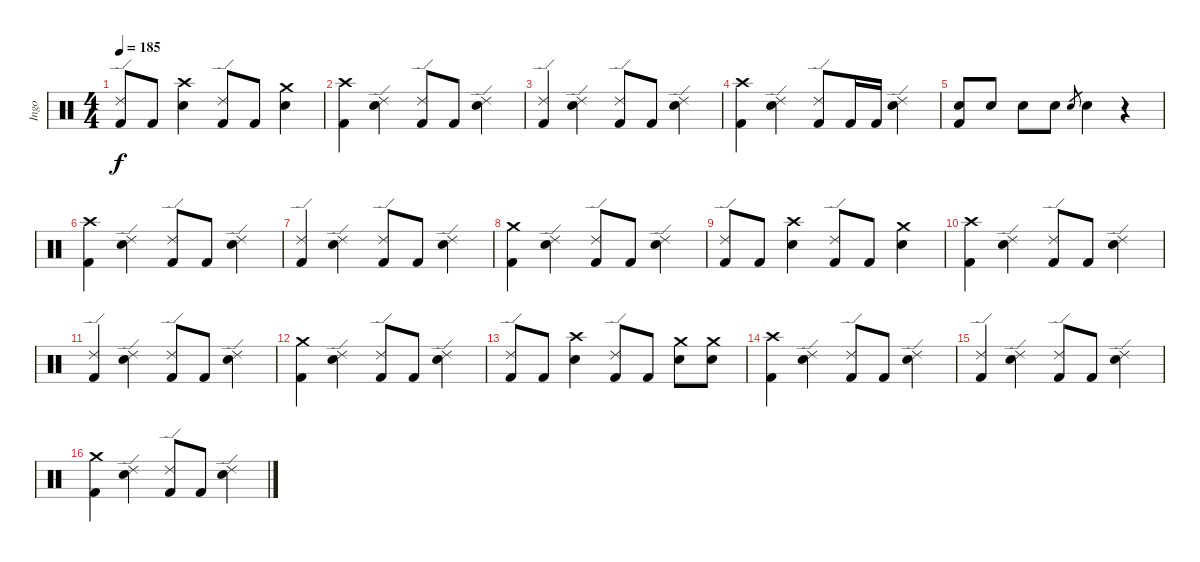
\track ("Ingo" "Ingo") {instrument percussion}
\staff {score}
\articulation defaults
\ts (4 4)
\tempo 185
\clef neutral
\ks c
("Ride (edge) 2" "Kick (hit) 2").8{dy f} "Kick (hit) 2".8 ("Crash high (hit)" "Electric Snare (hit)").4 ("Ride (edge) 2" "Kick (hit) 2").8 "Kick (hit) 2".8 ("Crash medium (hit)" "Electric Snare (hit)").4 |
("Crash high (hit)" "Kick (hit) 2").4 ("Ride (edge) 2" "Electric Snare (hit)").4 ("Ride (edge) 2" "Kick (hit) 2").8 "Kick (hit) 2".8 ("Ride (edge) 2" "Electric Snare (hit)").4 |
("Ride (edge) 2" "Kick (hit) 2").4 ("Ride (edge) 2" "Electric Snare (hit)").4 ("Ride (edge) 2" "Kick (hit) 2").8 "Kick (hit) 2".8 ("Ride (edge) 2" "Electric Snare (hit)").4 |
("Crash high (hit)" "Kick (hit) 2").4 ("Ride (edge) 2" "Electric Snare (hit)").4 ("Ride (edge) 2" "Kick (hit) 2").8 "Kick (hit) 2".16 "Kick (hit) 2".16 ("Ride (edge) 2" "Electric Snare (hit)").4 |
("Electric Snare (hit)" "Kick (hit) 2").8 "Electric Snare (hit)".8 "Electric Snare (hit)".8 "Electric Snare (hit)".8 "Electric Snare (hit)".8{gr} "Electric Snare (hit)".4 r.4 |
("Crash high (hit)" "Kick (hit) 2").4 ("Ride (edge) 2" "Electric Snare (hit)").4 ("Ride (edge) 2" "Kick (hit) 2").8 "Kick (hit) 2".8 ("Ride (edge) 2" "Electric Snare (hit)").4 |
("Ride (edge) 2" "Kick (hit) 2").4 ("Ride (edge) 2" "Electric Snare (hit)").4 ("Ride (edge) 2" "Kick (hit) 2").8 "Kick (hit) 2".8 ("Ride (edge) 2" "Electric Snare (hit)").4 |
("Crash medium (hit)" "Kick (hit) 2").4 ("Ride (edge) 2" "Electric Snare (hit)").4 ("Ride (edge) 2" "Kick (hit) 2").8 "Kick (hit) 2".8 ("Ride (edge) 2" "Electric Snare (hit)").4 |
("Ride (edge) 2" "Kick (hit) 2").8 "Kick (hit) 2".8 ("Crash high (hit)" "Electric Snare (hit)").4 ("Ride (edge) 2" "Kick (hit) 2").8 "Kick (hit) 2".8 ("Crash medium (hit)" "Electric Snare (hit)").4 |
("Crash high (hit)" "Kick (hit) 2").4 ("Ride (edge) 2" "Electric Snare (hit)").4 ("Ride (edge) 2" "Kick (hit) 2").8 "Kick (hit) 2".8 ("Ride (edge) 2" "Electric Snare (hit)").4 |
("Ride (edge) 2" "Kick (hit) 2").4 ("Ride (edge) 2" "Electric Snare (hit)").4 ("Ride (edge) 2" "Kick (hit) 2").8 "Kick (hit) 2".8 ("Ride (edge) 2" "Electric Snare (hit)").4 |
("Crash medium (hit)" "Kick (hit) 2").4 ("Ride (edge) 2" "Electric Snare (hit)").4 ("Ride (edge) 2" "Kick (hit) 2").8 "Kick (hit) 2".8 ("Ride (edge) 2" "Electric Snare (hit)").4 |
("Ride (edge) 2" "Kick (hit) 2").8 "Kick (hit) 2".8 ("Crash high (hit)" "Electric Snare (hit)").4 ("Ride (edge) 2" "Kick (hit) 2").8 "Kick (hit) 2".8 ("Crash medium (hit)" "Electric Snare (hit)").8 ("Crash medium (hit)" "Electric Snare (hit)").8 |
("Crash high (hit)" "Kick (hit) 2").4 ("Ride (edge) 2" "Electric Snare (hit)").4 ("Ride (edge) 2" "Kick (hit) 2").8 "Kick (hit) 2".8 ("Ride (edge) 2" "Electric Snare (hit)").4 |
("Ride (edge) 2" "Kick (hit) 2").4 ("Ride (edge) 2" "Electric Snare (hit)").4 ("Ride (edge) 2" "Kick (hit) 2").8 "Kick (hit) 2".8 ("Ride (edge) 2" "Electric Snare (hit)").4 |
("Crash medium (hit)" "Kick (hit) 2").4 ("Ride (edge) 2" "Electric Snare (hit)").4 ("Ride (edge) 2" "Kick (hit) 2").8 "Kick (hit) 2".8 ("Ride (edge) 2" "Electric Snare (hit)").4
